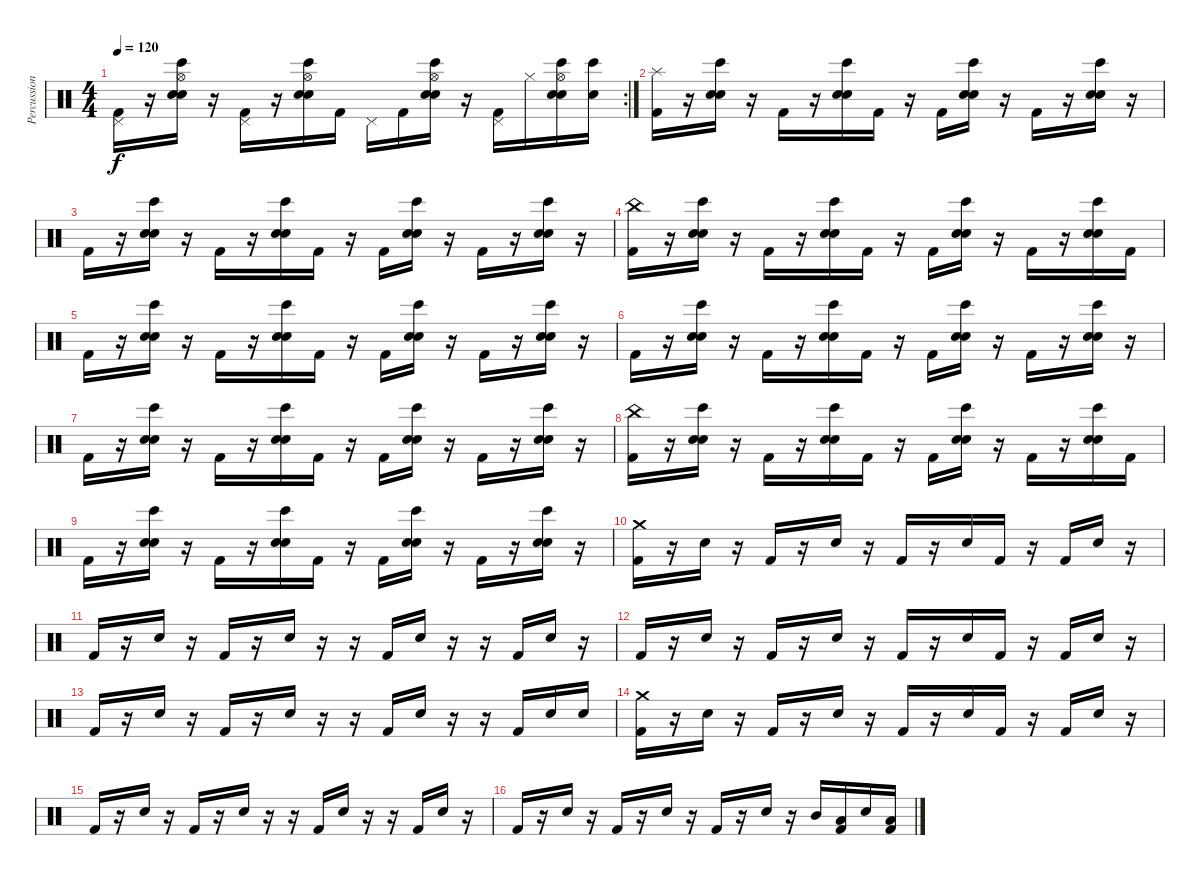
\track ("Percussion" "Percussion") {instrument percussion}
\staff {score}
\articulation defaults
\rc 2
\ts (4 4)
\tempo 120
\clef neutral
\ks c
("Pedal Hi-Hat (hit)" "Kick (hit) 2").16{dy f} r.16 ("Hi-Hat (open)" "Electric Snare (hit)" "Snare (hit) 2" "Bongo High (hit)").16 r.16 ("Pedal Hi-Hat (hit)" "Kick (hit) 2").16 r.16 ("Hi-Hat (open)" "Electric Snare (hit)" "Snare (hit) 2" "Bongo High (hit)").16 "Kick (hit) 2".16 "Pedal Hi-Hat (hit)".16 "Kick (hit) 2".16 ("Hi-Hat (open)" "Electric Snare (hit)" "Snare (hit) 2" "Bongo High (hit)").16 r.16 ("Pedal Hi-Hat (hit)" "Kick (hit) 2").16 "Hi-Hat (closed)".16 ("Hi-Hat (open)" "Electric Snare (hit)" "Snare (hit) 2" "Bongo High (hit)").16 ("Electric Snare (hit)" "Bongo High (hit)").16 |
("Kick (hit) 2" "Splash (hit)").16 r.16 ("Electric Snare (hit)" "Snare (hit) 2" "Bongo High (hit)").16 r.16 "Kick (hit) 2".16 r.16 ("Electric Snare (hit)" "Snare (hit) 2" "Bongo High (hit)").16 "Kick (hit) 2".16 r.16 "Kick (hit) 2".16 ("Electric Snare (hit)" "Snare (hit) 2" "Bongo High (hit)").16 r.16 "Kick (hit) 2".16 r.16 ("Electric Snare (hit)" "Snare (hit) 2" "Bongo High (hit)").16 r.16 |
"Kick (hit) 2".16 r.16 ("Electric Snare (hit)" "Snare (hit) 2" "Bongo High (hit)").16 r.16 "Kick (hit) 2".16 r.16 ("Electric Snare (hit)" "Snare (hit) 2" "Bongo High (hit)").16 "Kick (hit) 2".16 r.16 "Kick (hit) 2".16 ("Electric Snare (hit)" "Snare (hit) 2" "Bongo High (hit)").16 r.16 "Kick (hit) 2".16 r.16 ("Electric Snare (hit)" "Snare (hit) 2" "Bongo High (hit)").16 r.16 |
("China (hit)" "Kick (hit) 2").16 r.16 ("Electric Snare (hit)" "Snare (hit) 2" "Bongo High (hit)").16 r.16 "Kick (hit) 2".16 r.16 ("Electric Snare (hit)" "Snare (hit) 2" "Bongo High (hit)").16 "Kick (hit) 2".16 r.16 "Kick (hit) 2".16 ("Electric Snare (hit)" "Snare (hit) 2" "Bongo High (hit)").16 r.16 "Kick (hit) 2".16 r.16 ("Electric Snare (hit)" "Snare (hit) 2" "Bongo High (hit)").16 "Kick (hit) 2".16 |
"Kick (hit) 2".16 r.16 ("Electric Snare (hit)" "Snare (hit) 2" "Bongo High (hit)").16 r.16 "Kick (hit) 2".16 r.16 ("Electric Snare (hit)" "Snare (hit) 2" "Bongo High (hit)").16 "Kick (hit) 2".16 r.16 "Kick (hit) 2".16 ("Electric Snare (hit)" "Snare (hit) 2" "Bongo High (hit)").16 r.16 "Kick (hit) 2".16 r.16 ("Electric Snare (hit)" "Snare (hit) 2" "Bongo High (hit)").16 r.16 |
"Kick (hit) 2".16 r.16 ("Electric Snare (hit)" "Snare (hit) 2" "Bongo High (hit)").16 r.16 "Kick (hit) 2".16 r.16 ("Electric Snare (hit)" "Snare (hit) 2" "Bongo High (hit)").16 "Kick (hit) 2".16 r.16 "Kick (hit) 2".16 ("Electric Snare (hit)" "Snare (hit) 2" "Bongo High (hit)").16 r.16 "Kick (hit) 2".16 r.16 ("Electric Snare (hit)" "Snare (hit) 2" "Bongo High (hit)").16 r.16 |
"Kick (hit) 2".16 r.16 ("Electric Snare (hit)" "Snare (hit) 2" "Bongo High (hit)").16 r.16 "Kick (hit) 2".16 r.16 ("Electric Snare (hit)" "Snare (hit) 2" "Bongo High (hit)").16 "Kick (hit) 2".16 r.16 "Kick (hit) 2".16 ("Electric Snare (hit)" "Snare (hit) 2" "Bongo High (hit)").16 r.16 "Kick (hit) 2".16 r.16 ("Electric Snare (hit)" "Snare (hit) 2" "Bongo High (hit)").16 r.16 |
("China (hit)" "Kick (hit) 2").16 r.16 ("Electric Snare (hit)" "Snare (hit) 2" "Bongo High (hit)").16 r.16 "Kick (hit) 2".16 r.16 ("Electric Snare (hit)" "Snare (hit) 2" "Bongo High (hit)").16 "Kick (hit) 2".16 r.16 "Kick (hit) 2".16 ("Electric Snare (hit)" "Snare (hit) 2" "Bongo High (hit)").16 r.16 "Kick (hit) 2".16 r.16 ("Electric Snare (hit)" "Snare (hit) 2" "Bongo High (hit)").16 "Kick (hit) 2".16 |
"Kick (hit) 2".16 r.16 ("Electric Snare (hit)" "Snare (hit) 2" "Bongo High (hit)").16 r.16 "Kick (hit) 2".16 r.16 ("Electric Snare (hit)" "Snare (hit) 2" "Bongo High (hit)").16 "Kick (hit) 2".16 r.16 "Kick (hit) 2".16 ("Electric Snare (hit)" "Snare (hit) 2" "Bongo High (hit)").16 r.16 "Kick (hit) 2".16 r.16 ("Electric Snare (hit)" "Snare (hit) 2" "Bongo High (hit)").16 r.16 |
("Crash medium (hit)" "Kick (hit) 2").16 r.16 "Electric Snare (hit)".16 r.16 "Kick (hit) 2".16 r.16 "Electric Snare (hit)".16 r.16 "Kick (hit) 2".16 r.16 "Electric Snare (hit)".16 "Kick (hit) 2".16 r.16 "Kick (hit) 2".16 "Electric Snare (hit)".16 r.16 |
"Kick (hit) 2".16 r.16 "Electric Snare (hit)".16 r.16 "Kick (hit) 2".16 r.16 "Electric Snare (hit)".16 r.16 r.16 "Kick (hit) 2".16 "Electric Snare (hit)".16 r.16 r.16 "Kick (hit) 2".16 "Electric Snare (hit)".16 r.16 |
"Kick (hit) 2".16 r.16 "Electric Snare (hit)".16 r.16 "Kick (hit) 2".16 r.16 "Electric Snare (hit)".16 r.16 "Kick (hit) 2".16 r.16 "Electric Snare (hit)".16 "Kick (hit) 2".16 r.16 "Kick (hit) 2".16 "Electric Snare (hit)".16 r.16 |
"Kick (hit) 2".16 r.16 "Electric Snare (hit)".16 r.16 "Kick (hit) 2".16 r.16 "Electric Snare (hit)".16 r.16 r.16 "Kick (hit) 2".16 "Electric Snare (hit)".16 r.16 r.16 "Kick (hit) 2".16 "Electric Snare (hit)".16 "Electric Snare (hit)".16 |
("Crash medium (hit)" "Kick (hit) 2").16 r.16 "Electric Snare (hit)".16 r.16 "Kick (hit) 2".16 r.16 "Electric Snare (hit)".16 r.16 "Kick (hit) 2".16 r.16 "Electric Snare (hit)".16 "Kick (hit) 2".16 r.16 "Kick (hit) 2".16 "Electric Snare (hit)".16 r.16 |
"Kick (hit) 2".16 r.16 "Electric Snare (hit)".16 r.16 "Kick (hit) 2".16 r.16 "Electric Snare (hit)".16 r.16 r.16 "Kick (hit) 2".16 "Electric Snare (hit)".16 r.16 r.16 "Kick (hit) 2".16 "Electric Snare (hit)".16 r.16 |
"Kick (hit) 2".16 r.16 "Electric Snare (hit)".16 r.16 "Kick (hit) 2".16 r.16 "Electric Snare (hit)".16 r.16 "Kick (hit) 2".16 r.16 "Electric Snare (hit)".16 r.16 "Mid Tom (hit)".16 ("Kick (hit) 2" "Low Tom (hit)").16 "Electric Snare (hit)".16 ("Kick (hit) 2" "Low Tom (hit)").16
